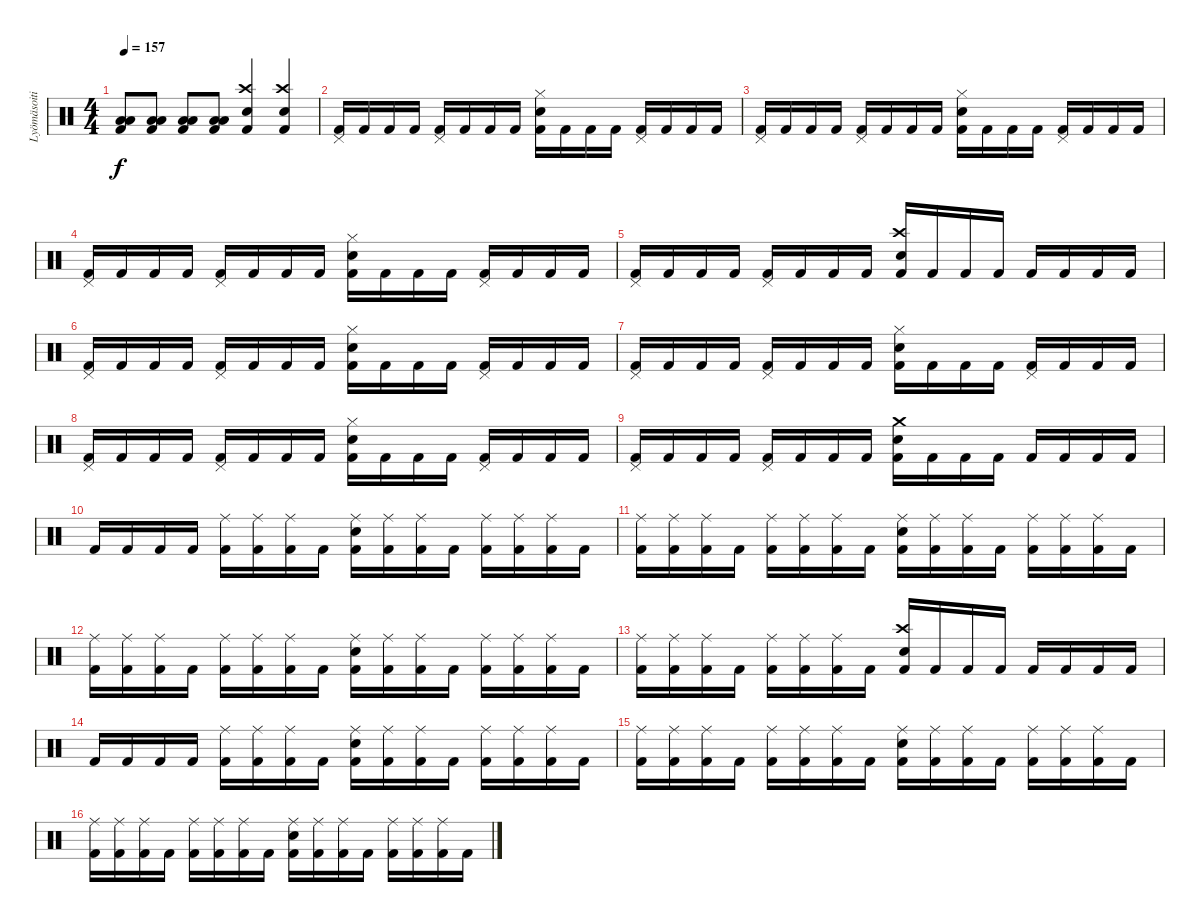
\track ("Lyömäsoitin" "Lyömäsoiti") {instrument percussion}
\staff {score}
\articulation defaults
\ts (4 4)
\tempo 157
\clef neutral
\ks c
("Low Tom (hit)" "Low Floor Tom (hit)" "Kick (hit) 2").8{dy f} ("Low Tom (hit)" "Low Floor Tom (hit)" "Kick (hit) 2").8 ("Low Tom (hit)" "Low Floor Tom (hit)" "Kick (hit) 2").8 ("Low Tom (hit)" "Low Floor Tom (hit)" "Kick (hit) 2").8 ("Crash high (hit)" "Electric Snare (hit)" "Kick (hit) 2").4 ("Crash high (hit)" "Electric Snare (hit)" "Kick (hit) 2").4 |
("Pedal Hi-Hat (hit)" "Kick (hit) 2").16 "Kick (hit) 2".16 "Kick (hit) 2".16 "Kick (hit) 2".16 ("Pedal Hi-Hat (hit)" "Kick (hit) 2").16 "Kick (hit) 2".16 "Kick (hit) 2".16 "Kick (hit) 2".16 ("Hi-Hat (closed)" "Electric Snare (hit)" "Kick (hit) 2").16 "Kick (hit) 2".16 "Kick (hit) 2".16 "Kick (hit) 2".16 ("Pedal Hi-Hat (hit)" "Kick (hit) 2").16 "Kick (hit) 2".16 "Kick (hit) 2".16 "Kick (hit) 2".16 |
("Pedal Hi-Hat (hit)" "Kick (hit) 2").16 "Kick (hit) 2".16 "Kick (hit) 2".16 "Kick (hit) 2".16 ("Pedal Hi-Hat (hit)" "Kick (hit) 2").16 "Kick (hit) 2".16 "Kick (hit) 2".16 "Kick (hit) 2".16 ("Hi-Hat (closed)" "Electric Snare (hit)" "Kick (hit) 2").16 "Kick (hit) 2".16 "Kick (hit) 2".16 "Kick (hit) 2".16 ("Pedal Hi-Hat (hit)" "Kick (hit) 2").16 "Kick (hit) 2".16 "Kick (hit) 2".16 "Kick (hit) 2".16 |
("Pedal Hi-Hat (hit)" "Kick (hit) 2").16 "Kick (hit) 2".16 "Kick (hit) 2".16 "Kick (hit) 2".16 ("Pedal Hi-Hat (hit)" "Kick (hit) 2").16 "Kick (hit) 2".16 "Kick (hit) 2".16 "Kick (hit) 2".16 ("Hi-Hat (closed)" "Electric Snare (hit)" "Kick (hit) 2").16 "Kick (hit) 2".16 "Kick (hit) 2".16 "Kick (hit) 2".16 ("Pedal Hi-Hat (hit)" "Kick (hit) 2").16 "Kick (hit) 2".16 "Kick (hit) 2".16 "Kick (hit) 2".16 |
("Pedal Hi-Hat (hit)" "Kick (hit) 2").16 "Kick (hit) 2".16 "Kick (hit) 2".16 "Kick (hit) 2".16 ("Pedal Hi-Hat (hit)" "Kick (hit) 2").16 "Kick (hit) 2".16 "Kick (hit) 2".16 "Kick (hit) 2".16 ("Crash high (hit)" "Electric Snare (hit)" "Kick (hit) 2").16 "Kick (hit) 2".16 "Kick (hit) 2".16 "Kick (hit) 2".16 "Kick (hit) 2".16 "Kick (hit) 2".16 "Kick (hit) 2".16 "Kick (hit) 2".16 |
("Pedal Hi-Hat (hit)" "Kick (hit) 2").16 "Kick (hit) 2".16 "Kick (hit) 2".16 "Kick (hit) 2".16 ("Pedal Hi-Hat (hit)" "Kick (hit) 2").16 "Kick (hit) 2".16 "Kick (hit) 2".16 "Kick (hit) 2".16 ("Hi-Hat (closed)" "Electric Snare (hit)" "Kick (hit) 2").16 "Kick (hit) 2".16 "Kick (hit) 2".16 "Kick (hit) 2".16 ("Pedal Hi-Hat (hit)" "Kick (hit) 2").16 "Kick (hit) 2".16 "Kick (hit) 2".16 "Kick (hit) 2".16 |
("Pedal Hi-Hat (hit)" "Kick (hit) 2").16 "Kick (hit) 2".16 "Kick (hit) 2".16 "Kick (hit) 2".16 ("Pedal Hi-Hat (hit)" "Kick (hit) 2").16 "Kick (hit) 2".16 "Kick (hit) 2".16 "Kick (hit) 2".16 ("Hi-Hat (closed)" "Electric Snare (hit)" "Kick (hit) 2").16 "Kick (hit) 2".16 "Kick (hit) 2".16 "Kick (hit) 2".16 ("Pedal Hi-Hat (hit)" "Kick (hit) 2").16 "Kick (hit) 2".16 "Kick (hit) 2".16 "Kick (hit) 2".16 |
("Pedal Hi-Hat (hit)" "Kick (hit) 2").16 "Kick (hit) 2".16 "Kick (hit) 2".16 "Kick (hit) 2".16 ("Pedal Hi-Hat (hit)" "Kick (hit) 2").16 "Kick (hit) 2".16 "Kick (hit) 2".16 "Kick (hit) 2".16 ("Hi-Hat (closed)" "Electric Snare (hit)" "Kick (hit) 2").16 "Kick (hit) 2".16 "Kick (hit) 2".16 "Kick (hit) 2".16 ("Pedal Hi-Hat (hit)" "Kick (hit) 2").16 "Kick (hit) 2".16 "Kick (hit) 2".16 "Kick (hit) 2".16 |
("Pedal Hi-Hat (hit)" "Kick (hit) 2").16 "Kick (hit) 2".16 "Kick (hit) 2".16 "Kick (hit) 2".16 ("Pedal Hi-Hat (hit)" "Kick (hit) 2").16 "Kick (hit) 2".16 "Kick (hit) 2".16 "Kick (hit) 2".16 ("Crash medium (hit)" "Electric Snare (hit)" "Kick (hit) 2").16 "Kick (hit) 2".16 "Kick (hit) 2".16 "Kick (hit) 2".16 "Kick (hit) 2".16 "Kick (hit) 2".16 "Kick (hit) 2".16 "Kick (hit) 2".16 |
"Kick (hit) 2".16 "Kick (hit) 2".16 "Kick (hit) 2".16 "Kick (hit) 2".16 ("Ride (middle)" "Kick (hit) 2").16 ("Ride (middle)" "Kick (hit) 2").16 ("Ride (middle)" "Kick (hit) 2").16 "Kick (hit) 2".16 ("Ride (middle)" "Electric Snare (hit)" "Kick (hit) 2").16 ("Ride (middle)" "Kick (hit) 2").16 ("Ride (middle)" "Kick (hit) 2").16 "Kick (hit) 2".16 ("Ride (middle)" "Kick (hit) 2").16 ("Ride (middle)" "Kick (hit) 2").16 ("Ride (middle)" "Kick (hit) 2").16 "Kick (hit) 2".16 |
("Ride (middle)" "Kick (hit) 2").16 ("Ride (middle)" "Kick (hit) 2").16 ("Ride (middle)" "Kick (hit) 2").16 "Kick (hit) 2".16 ("Ride (middle)" "Kick (hit) 2").16 ("Ride (middle)" "Kick (hit) 2").16 ("Ride (middle)" "Kick (hit) 2").16 "Kick (hit) 2".16 ("Ride (middle)" "Electric Snare (hit)" "Kick (hit) 2").16 ("Ride (middle)" "Kick (hit) 2").16 ("Ride (middle)" "Kick (hit) 2").16 "Kick (hit) 2".16 ("Ride (middle)" "Kick (hit) 2").16 ("Ride (middle)" "Kick (hit) 2").16 ("Ride (middle)" "Kick (hit) 2").16 "Kick (hit) 2".16 |
("Ride (middle)" "Kick (hit) 2").16 ("Ride (middle)" "Kick (hit) 2").16 ("Ride (middle)" "Kick (hit) 2").16 "Kick (hit) 2".16 ("Ride (middle)" "Kick (hit) 2").16 ("Ride (middle)" "Kick (hit) 2").16 ("Ride (middle)" "Kick (hit) 2").16 "Kick (hit) 2".16 ("Ride (middle)" "Electric Snare (hit)" "Kick (hit) 2").16 ("Ride (middle)" "Kick (hit) 2").16 ("Ride (middle)" "Kick (hit) 2").16 "Kick (hit) 2".16 ("Ride (middle)" "Kick (hit) 2").16 ("Ride (middle)" "Kick (hit) 2").16 ("Ride (middle)" "Kick (hit) 2").16 "Kick (hit) 2".16 |
("Ride (middle)" "Kick (hit) 2").16 ("Ride (middle)" "Kick (hit) 2").16 ("Ride (middle)" "Kick (hit) 2").16 "Kick (hit) 2".16 ("Ride (middle)" "Kick (hit) 2").16 ("Ride (middle)" "Kick (hit) 2").16 ("Ride (middle)" "Kick (hit) 2").16 "Kick (hit) 2".16 ("Crash high (hit)" "Electric Snare (hit)" "Kick (hit) 2").16 "Kick (hit) 2".16 "Kick (hit) 2".16 "Kick (hit) 2".16 "Kick (hit) 2".16 "Kick (hit) 2".16 "Kick (hit) 2".16 "Kick (hit) 2".16 |
"Kick (hit) 2".16 "Kick (hit) 2".16 "Kick (hit) 2".16 "Kick (hit) 2".16 ("Ride (middle)" "Kick (hit) 2").16 ("Ride (middle)" "Kick (hit) 2").16 ("Ride (middle)" "Kick (hit) 2").16 "Kick (hit) 2".16 ("Ride (middle)" "Electric Snare (hit)" "Kick (hit) 2").16 ("Ride (middle)" "Kick (hit) 2").16 ("Ride (middle)" "Kick (hit) 2").16 "Kick (hit) 2".16 ("Ride (middle)" "Kick (hit) 2").16 ("Ride (middle)" "Kick (hit) 2").16 ("Ride (middle)" "Kick (hit) 2").16 "Kick (hit) 2".16 |
("Ride (middle)" "Kick (hit) 2").16 ("Ride (middle)" "Kick (hit) 2").16 ("Ride (middle)" "Kick (hit) 2").16 "Kick (hit) 2".16 ("Ride (middle)" "Kick (hit) 2").16 ("Ride (middle)" "Kick (hit) 2").16 ("Ride (middle)" "Kick (hit) 2").16 "Kick (hit) 2".16 ("Ride (middle)" "Electric Snare (hit)" "Kick (hit) 2").16 ("Ride (middle)" "Kick (hit) 2").16 ("Ride (middle)" "Kick (hit) 2").16 "Kick (hit) 2".16 ("Ride (middle)" "Kick (hit) 2").16 ("Ride (middle)" "Kick (hit) 2").16 ("Ride (middle)" "Kick (hit) 2").16 "Kick (hit) 2".16 |
("Ride (middle)" "Kick (hit) 2").16 ("Ride (middle)" "Kick (hit) 2").16 ("Ride (middle)" "Kick (hit) 2").16 "Kick (hit) 2".16 ("Ride (middle)" "Kick (hit) 2").16 ("Ride (middle)" "Kick (hit) 2").16 ("Ride (middle)" "Kick (hit) 2").16 "Kick (hit) 2".16 ("Ride (middle)" "Electric Snare (hit)" "Kick (hit) 2").16 ("Ride (middle)" "Kick (hit) 2").16 ("Ride (middle)" "Kick (hit) 2").16 "Kick (hit) 2".16 ("Ride (middle)" "Kick (hit) 2").16 ("Ride (middle)" "Kick (hit) 2").16 ("Ride (middle)" "Kick (hit) 2").16 "Kick (hit) 2".16
